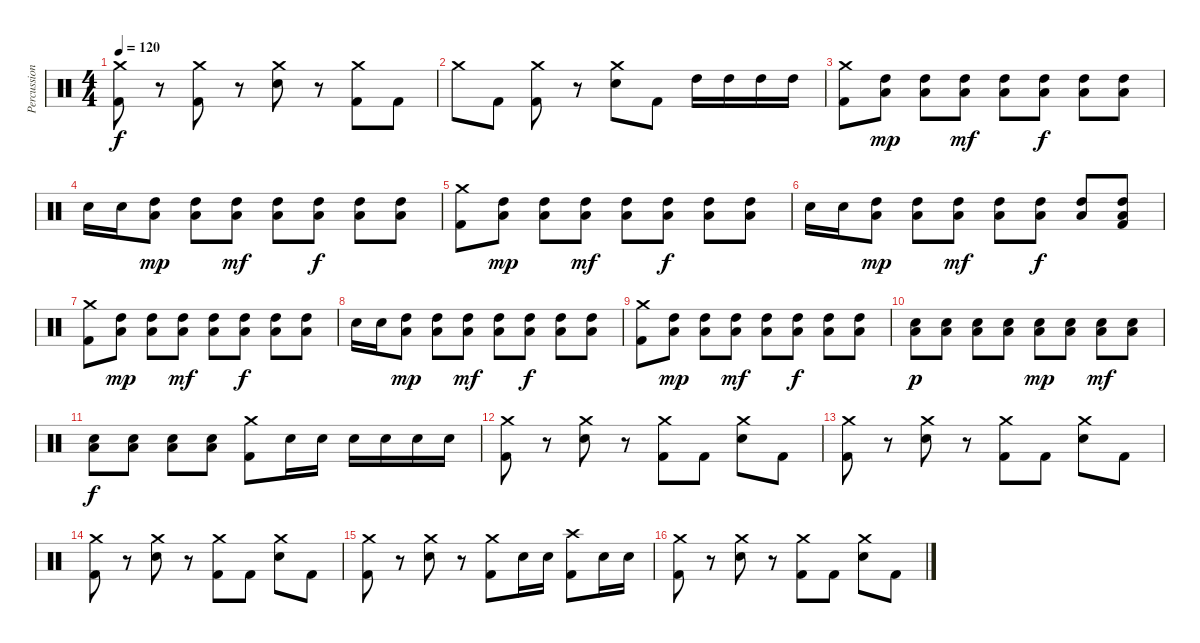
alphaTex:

\track ("Percussion" "Percussion") {instrument percussion}
\staff {score}
\articulation defaults
\ts (4 4)
\tempo 120
\clef neutral
\ks c
("Crash medium (hit)" "Kick (hit) 2").8{dy f} r.8 ("Crash medium (hit)" "Kick (hit) 2").8 r.8 ("Crash medium (hit)" "Snare (hit) 2").8 r.8 ("Crash medium (hit)" "Kick (hit) 2").8 "Kick (hit) 2".8 |
"Crash medium (hit)".8 "Kick (hit) 2".8 ("Crash medium (hit)" "Kick (hit) 2").8 r.8 ("Crash medium (hit)" "Snare (hit) 2").8 "Kick (hit) 2".8 "High Tom (hit)".16 "High Tom (hit)".16 "High Tom (hit)".16 "High Tom (hit)".16 |
("Crash medium (hit)" "Kick (hit) 2").8 ("High Tom (hit)" "Low Floor Tom (hit)").8{dy mp} ("High Tom (hit)" "Low Floor Tom (hit)").8 ("High Tom (hit)" "Low Floor Tom (hit)").8{dy mf} ("High Tom (hit)" "Low Floor Tom (hit)").8 ("High Tom (hit)" "Low Floor Tom (hit)").8{dy f} ("High Tom (hit)" "Low Floor Tom (hit)").8 ("High Tom (hit)" "Low Floor Tom (hit)").8 |
"Snare (hit) 2".16 "Snare (hit) 2".16 ("High Tom (hit)" "Low Floor Tom (hit)").8{dy mp} ("High Tom (hit)" "Low Floor Tom (hit)").8 ("High Tom (hit)" "Low Floor Tom (hit)").8{dy mf} ("High Tom (hit)" "Low Floor Tom (hit)").8 ("High Tom (hit)" "Low Floor Tom (hit)").8{dy f} ("High Tom (hit)" "Low Floor Tom (hit)").8 ("High Tom (hit)" "Low Floor Tom (hit)").8 |
("Crash medium (hit)" "Kick (hit) 2").8 ("High Tom (hit)" "Low Floor Tom (hit)").8{dy mp} ("High Tom (hit)" "Low Floor Tom (hit)").8 ("High Tom (hit)" "Low Floor Tom (hit)").8{dy mf} ("High Tom (hit)" "Low Floor Tom (hit)").8 ("High Tom (hit)" "Low Floor Tom (hit)").8{dy f} ("High Tom (hit)" "Low Floor Tom (hit)").8 ("High Tom (hit)" "Low Floor Tom (hit)").8 |
"Snare (hit) 2".16 "Snare (hit) 2".16 ("High Tom (hit)" "Low Floor Tom (hit)").8{dy mp} ("High Tom (hit)" "Low Floor Tom (hit)").8 ("High Tom (hit)" "Low Floor Tom (hit)").8{dy mf} ("High Tom (hit)" "Low Floor Tom (hit)").8 ("High Tom (hit)" "Low Floor Tom (hit)").8{dy f} ("High Tom (hit)" "Low Floor Tom (hit)").8 ("High Tom (hit)" "Low Floor Tom (hit)" "Kick (hit) 2").8 |
("Crash medium (hit)" "Kick (hit) 2").8 ("High Tom (hit)" "Low Floor Tom (hit)").8{dy mp} ("High Tom (hit)" "Low Floor Tom (hit)").8 ("High Tom (hit)" "Low Floor Tom (hit)").8{dy mf} ("High Tom (hit)" "Low Floor Tom (hit)").8 ("High Tom (hit)" "Low Floor Tom (hit)").8{dy f} ("High Tom (hit)" "Low Floor Tom (hit)").8 ("High Tom (hit)" "Low Floor Tom (hit)").8 |
"Snare (hit) 2".16 "Snare (hit) 2".16 ("High Tom (hit)" "Low Floor Tom (hit)").8{dy mp} ("High Tom (hit)" "Low Floor Tom (hit)").8 ("High Tom (hit)" "Low Floor Tom (hit)").8{dy mf} ("High Tom (hit)" "Low Floor Tom (hit)").8 ("High Tom (hit)" "Low Floor Tom (hit)").8{dy f} ("High Tom (hit)" "Low Floor Tom (hit)").8 ("High Tom (hit)" "Low Floor Tom (hit)").8 |
("Crash medium (hit)" "Kick (hit) 2").8 ("High Tom (hit)" "Low Floor Tom (hit)").8{dy mp} ("High Tom (hit)" "Low Floor Tom (hit)").8 ("High Tom (hit)" "Low Floor Tom (hit)").8{dy mf} ("High Tom (hit)" "Low Floor Tom (hit)").8 ("High Tom (hit)" "Low Floor Tom (hit)").8{dy f} ("High Tom (hit)" "Low Floor Tom (hit)").8 ("High Tom (hit)" "Low Floor Tom (hit)").8 |
("Snare (hit) 2" "Low Floor Tom (hit)").8{dy p} ("Snare (hit) 2" "Low Floor Tom (hit)").8 ("Snare (hit) 2" "Low Floor Tom (hit)").8 ("Snare (hit) 2" "Low Floor Tom (hit)").8 ("Snare (hit) 2" "Low Floor Tom (hit)").8{dy mp} ("Snare (hit) 2" "Low Floor Tom (hit)").8 ("Snare (hit) 2" "Low Floor Tom (hit)").8{dy mf} ("Snare (hit) 2" "Low Floor Tom (hit)").8 |
("Snare (hit) 2" "Low Floor Tom (hit)").8{dy f} ("Snare (hit) 2" "Low Floor Tom (hit)").8 ("Snare (hit) 2" "Low Floor Tom (hit)").8 ("Snare (hit) 2" "Low Floor Tom (hit)").8 ("Crash medium (hit)" "Kick (hit) 2").8 "Snare (hit) 2".16 "Snare (hit) 2".16 "Snare (hit) 2".16 "Snare (hit) 2".16 "Snare (hit) 2".16 "Snare (hit) 2".16 |
("Crash medium (hit)" "Kick (hit) 2").8 r.8 ("Crash medium (hit)" "Snare (hit) 2").8 r.8 ("Crash medium (hit)" "Kick (hit) 2").8 "Kick (hit) 2".8 ("Crash medium (hit)" "Snare (hit) 2").8 "Kick (hit) 2".8 |
("Crash medium (hit)" "Kick (hit) 2").8 r.8 ("Crash medium (hit)" "Snare (hit) 2").8 r.8 ("Crash medium (hit)" "Kick (hit) 2").8 "Kick (hit) 2".8 ("Crash medium (hit)" "Snare (hit) 2").8 "Kick (hit) 2".8 |
("Crash medium (hit)" "Kick (hit) 2").8 r.8 ("Crash medium (hit)" "Snare (hit) 2").8 r.8 ("Crash medium (hit)" "Kick (hit) 2").8 "Kick (hit) 2".8 ("Crash medium (hit)" "Snare (hit) 2").8 "Kick (hit) 2".8 |
("Crash medium (hit)" "Kick (hit) 2").8 r.8 ("Crash medium (hit)" "Snare (hit) 2").8 r.8 ("Crash medium (hit)" "Kick (hit) 2").8 "Snare (hit) 2".16 "Snare (hit) 2".16 ("Crash high (hit)" "Kick (hit) 2").8 "Snare (hit) 2".16 "Snare (hit) 2".16 |
("Crash medium (hit)" "Kick (hit) 2").8 r.8 ("Crash medium (hit)" "Snare (hit) 2").8 r.8 ("Crash medium (hit)" "Kick (hit) 2").8 "Kick (hit) 2".8 ("Crash medium (hit)" "Snare (hit) 2").8 "Kick (hit) 2".8
